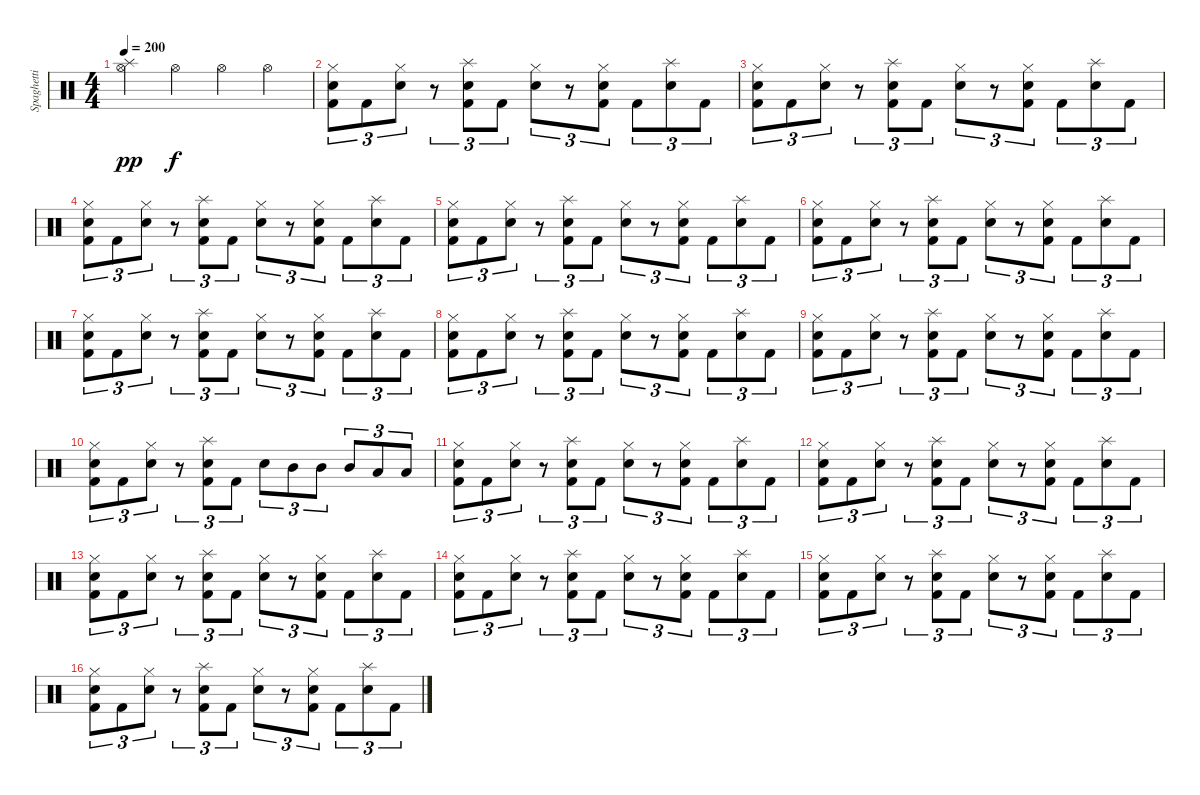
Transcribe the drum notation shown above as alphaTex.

\track ("Spaghetti" "Spaghetti") {instrument percussion}
\staff {score}
\articulation defaults
\ts (4 4)
\tempo 200
\clef neutral
\ks c
("Splash (hit)" "Hi-Hat (open)").4{dy pp} "Hi-Hat (open)".4{dy f} "Hi-Hat (open)".4 "Hi-Hat (open)".4 |
("Hi-Hat (closed)" "Snare (hit) 2" "Kick (hit) 2").8{tu (3 2)} "Kick (hit) 2".8{tu (3 2)} ("Hi-Hat (closed)" "Snare (hit) 2").8{tu (3 2)} r.8{tu (3 2)} ("Splash (hit)" "Snare (hit) 2" "Kick (hit) 2").8{tu (3 2)} "Kick (hit) 2".8{tu (3 2)} ("Hi-Hat (closed)" "Snare (hit) 2").8{tu (3 2)} r.8{tu (3 2)} ("Hi-Hat (closed)" "Snare (hit) 2" "Kick (hit) 2").8{tu (3 2)} "Kick (hit) 2".8{tu (3 2)} ("Splash (hit)" "Snare (hit) 2").8{tu (3 2)} "Kick (hit) 2".8{tu (3 2)} |
("Hi-Hat (closed)" "Snare (hit) 2" "Kick (hit) 2").8{tu (3 2)} "Kick (hit) 2".8{tu (3 2)} ("Hi-Hat (closed)" "Snare (hit) 2").8{tu (3 2)} r.8{tu (3 2)} ("Splash (hit)" "Snare (hit) 2" "Kick (hit) 2").8{tu (3 2)} "Kick (hit) 2".8{tu (3 2)} ("Hi-Hat (closed)" "Snare (hit) 2").8{tu (3 2)} r.8{tu (3 2)} ("Hi-Hat (closed)" "Snare (hit) 2" "Kick (hit) 2").8{tu (3 2)} "Kick (hit) 2".8{tu (3 2)} ("Splash (hit)" "Snare (hit) 2").8{tu (3 2)} "Kick (hit) 2".8{tu (3 2)} |
("Hi-Hat (closed)" "Snare (hit) 2" "Kick (hit) 2").8{tu (3 2)} "Kick (hit) 2".8{tu (3 2)} ("Hi-Hat (closed)" "Snare (hit) 2").8{tu (3 2)} r.8{tu (3 2)} ("Splash (hit)" "Snare (hit) 2" "Kick (hit) 2").8{tu (3 2)} "Kick (hit) 2".8{tu (3 2)} ("Hi-Hat (closed)" "Snare (hit) 2").8{tu (3 2)} r.8{tu (3 2)} ("Hi-Hat (closed)" "Snare (hit) 2" "Kick (hit) 2").8{tu (3 2)} "Kick (hit) 2".8{tu (3 2)} ("Splash (hit)" "Snare (hit) 2").8{tu (3 2)} "Kick (hit) 2".8{tu (3 2)} |
("Hi-Hat (closed)" "Snare (hit) 2" "Kick (hit) 2").8{tu (3 2)} "Kick (hit) 2".8{tu (3 2)} ("Hi-Hat (closed)" "Snare (hit) 2").8{tu (3 2)} r.8{tu (3 2)} ("Splash (hit)" "Snare (hit) 2" "Kick (hit) 2").8{tu (3 2)} "Kick (hit) 2".8{tu (3 2)} ("Hi-Hat (closed)" "Snare (hit) 2").8{tu (3 2)} r.8{tu (3 2)} ("Hi-Hat (closed)" "Snare (hit) 2" "Kick (hit) 2").8{tu (3 2)} "Kick (hit) 2".8{tu (3 2)} ("Splash (hit)" "Snare (hit) 2").8{tu (3 2)} "Kick (hit) 2".8{tu (3 2)} |
("Hi-Hat (closed)" "Snare (hit) 2" "Kick (hit) 2").8{tu (3 2)} "Kick (hit) 2".8{tu (3 2)} ("Hi-Hat (closed)" "Snare (hit) 2").8{tu (3 2)} r.8{tu (3 2)} ("Splash (hit)" "Snare (hit) 2" "Kick (hit) 2").8{tu (3 2)} "Kick (hit) 2".8{tu (3 2)} ("Hi-Hat (closed)" "Snare (hit) 2").8{tu (3 2)} r.8{tu (3 2)} ("Hi-Hat (closed)" "Snare (hit) 2" "Kick (hit) 2").8{tu (3 2)} "Kick (hit) 2".8{tu (3 2)} ("Splash (hit)" "Snare (hit) 2").8{tu (3 2)} "Kick (hit) 2".8{tu (3 2)} |
("Hi-Hat (closed)" "Snare (hit) 2" "Kick (hit) 2").8{tu (3 2)} "Kick (hit) 2".8{tu (3 2)} ("Hi-Hat (closed)" "Snare (hit) 2").8{tu (3 2)} r.8{tu (3 2)} ("Splash (hit)" "Snare (hit) 2" "Kick (hit) 2").8{tu (3 2)} "Kick (hit) 2".8{tu (3 2)} ("Hi-Hat (closed)" "Snare (hit) 2").8{tu (3 2)} r.8{tu (3 2)} ("Hi-Hat (closed)" "Snare (hit) 2" "Kick (hit) 2").8{tu (3 2)} "Kick (hit) 2".8{tu (3 2)} ("Splash (hit)" "Snare (hit) 2").8{tu (3 2)} "Kick (hit) 2".8{tu (3 2)} |
("Hi-Hat (closed)" "Snare (hit) 2" "Kick (hit) 2").8{tu (3 2)} "Kick (hit) 2".8{tu (3 2)} ("Hi-Hat (closed)" "Snare (hit) 2").8{tu (3 2)} r.8{tu (3 2)} ("Splash (hit)" "Snare (hit) 2" "Kick (hit) 2").8{tu (3 2)} "Kick (hit) 2".8{tu (3 2)} ("Hi-Hat (closed)" "Snare (hit) 2").8{tu (3 2)} r.8{tu (3 2)} ("Hi-Hat (closed)" "Snare (hit) 2" "Kick (hit) 2").8{tu (3 2)} "Kick (hit) 2".8{tu (3 2)} ("Splash (hit)" "Snare (hit) 2").8{tu (3 2)} "Kick (hit) 2".8{tu (3 2)} |
("Hi-Hat (closed)" "Snare (hit) 2" "Kick (hit) 2").8{tu (3 2)} "Kick (hit) 2".8{tu (3 2)} ("Hi-Hat (closed)" "Snare (hit) 2").8{tu (3 2)} r.8{tu (3 2)} ("Splash (hit)" "Snare (hit) 2" "Kick (hit) 2").8{tu (3 2)} "Kick (hit) 2".8{tu (3 2)} ("Hi-Hat (closed)" "Snare (hit) 2").8{tu (3 2)} r.8{tu (3 2)} ("Hi-Hat (closed)" "Snare (hit) 2" "Kick (hit) 2").8{tu (3 2)} "Kick (hit) 2".8{tu (3 2)} ("Splash (hit)" "Snare (hit) 2").8{tu (3 2)} "Kick (hit) 2".8{tu (3 2)} |
("Hi-Hat (closed)" "Snare (hit) 2" "Kick (hit) 2").8{tu (3 2)} "Kick (hit) 2".8{tu (3 2)} ("Hi-Hat (closed)" "Snare (hit) 2").8{tu (3 2)} r.8{tu (3 2)} ("Splash (hit)" "Snare (hit) 2" "Kick (hit) 2").8{tu (3 2)} "Kick (hit) 2".8{tu (3 2)} "Snare (hit) 2".8{tu (3 2)} "Mid Tom (hit)".8{tu (3 2)} "Mid Tom (hit)".8{tu (3 2)} "Mid Tom (hit)".8{tu (3 2)} "Low Tom (hit)".8{tu (3 2)} "Low Tom (hit)".8{tu (3 2)} |
("Hi-Hat (closed)" "Snare (hit) 2" "Kick (hit) 2").8{tu (3 2)} "Kick (hit) 2".8{tu (3 2)} ("Hi-Hat (closed)" "Snare (hit) 2").8{tu (3 2)} r.8{tu (3 2)} ("Splash (hit)" "Snare (hit) 2" "Kick (hit) 2").8{tu (3 2)} "Kick (hit) 2".8{tu (3 2)} ("Hi-Hat (closed)" "Snare (hit) 2").8{tu (3 2)} r.8{tu (3 2)} ("Hi-Hat (closed)" "Snare (hit) 2" "Kick (hit) 2").8{tu (3 2)} "Kick (hit) 2".8{tu (3 2)} ("Splash (hit)" "Snare (hit) 2").8{tu (3 2)} "Kick (hit) 2".8{tu (3 2)} |
("Hi-Hat (closed)" "Snare (hit) 2" "Kick (hit) 2").8{tu (3 2)} "Kick (hit) 2".8{tu (3 2)} ("Hi-Hat (closed)" "Snare (hit) 2").8{tu (3 2)} r.8{tu (3 2)} ("Splash (hit)" "Snare (hit) 2" "Kick (hit) 2").8{tu (3 2)} "Kick (hit) 2".8{tu (3 2)} ("Hi-Hat (closed)" "Snare (hit) 2").8{tu (3 2)} r.8{tu (3 2)} ("Hi-Hat (closed)" "Snare (hit) 2" "Kick (hit) 2").8{tu (3 2)} "Kick (hit) 2".8{tu (3 2)} ("Splash (hit)" "Snare (hit) 2").8{tu (3 2)} "Kick (hit) 2".8{tu (3 2)} |
("Hi-Hat (closed)" "Snare (hit) 2" "Kick (hit) 2").8{tu (3 2)} "Kick (hit) 2".8{tu (3 2)} ("Hi-Hat (closed)" "Snare (hit) 2").8{tu (3 2)} r.8{tu (3 2)} ("Splash (hit)" "Snare (hit) 2" "Kick (hit) 2").8{tu (3 2)} "Kick (hit) 2".8{tu (3 2)} ("Hi-Hat (closed)" "Snare (hit) 2").8{tu (3 2)} r.8{tu (3 2)} ("Hi-Hat (closed)" "Snare (hit) 2" "Kick (hit) 2").8{tu (3 2)} "Kick (hit) 2".8{tu (3 2)} ("Splash (hit)" "Snare (hit) 2").8{tu (3 2)} "Kick (hit) 2".8{tu (3 2)} |
("Hi-Hat (closed)" "Snare (hit) 2" "Kick (hit) 2").8{tu (3 2)} "Kick (hit) 2".8{tu (3 2)} ("Hi-Hat (closed)" "Snare (hit) 2").8{tu (3 2)} r.8{tu (3 2)} ("Splash (hit)" "Snare (hit) 2" "Kick (hit) 2").8{tu (3 2)} "Kick (hit) 2".8{tu (3 2)} ("Hi-Hat (closed)" "Snare (hit) 2").8{tu (3 2)} r.8{tu (3 2)} ("Hi-Hat (closed)" "Snare (hit) 2" "Kick (hit) 2").8{tu (3 2)} "Kick (hit) 2".8{tu (3 2)} ("Splash (hit)" "Snare (hit) 2").8{tu (3 2)} "Kick (hit) 2".8{tu (3 2)} |
("Hi-Hat (closed)" "Snare (hit) 2" "Kick (hit) 2").8{tu (3 2)} "Kick (hit) 2".8{tu (3 2)} ("Hi-Hat (closed)" "Snare (hit) 2").8{tu (3 2)} r.8{tu (3 2)} ("Splash (hit)" "Snare (hit) 2" "Kick (hit) 2").8{tu (3 2)} "Kick (hit) 2".8{tu (3 2)} ("Hi-Hat (closed)" "Snare (hit) 2").8{tu (3 2)} r.8{tu (3 2)} ("Hi-Hat (closed)" "Snare (hit) 2" "Kick (hit) 2").8{tu (3 2)} "Kick (hit) 2".8{tu (3 2)} ("Splash (hit)" "Snare (hit) 2").8{tu (3 2)} "Kick (hit) 2".8{tu (3 2)} |
("Hi-Hat (closed)" "Snare (hit) 2" "Kick (hit) 2").8{tu (3 2)} "Kick (hit) 2".8{tu (3 2)} ("Hi-Hat (closed)" "Snare (hit) 2").8{tu (3 2)} r.8{tu (3 2)} ("Splash (hit)" "Snare (hit) 2" "Kick (hit) 2").8{tu (3 2)} "Kick (hit) 2".8{tu (3 2)} ("Hi-Hat (closed)" "Snare (hit) 2").8{tu (3 2)} r.8{tu (3 2)} ("Hi-Hat (closed)" "Snare (hit) 2" "Kick (hit) 2").8{tu (3 2)} "Kick (hit) 2".8{tu (3 2)} ("Splash (hit)" "Snare (hit) 2").8{tu (3 2)} "Kick (hit) 2".8{tu (3 2)}
